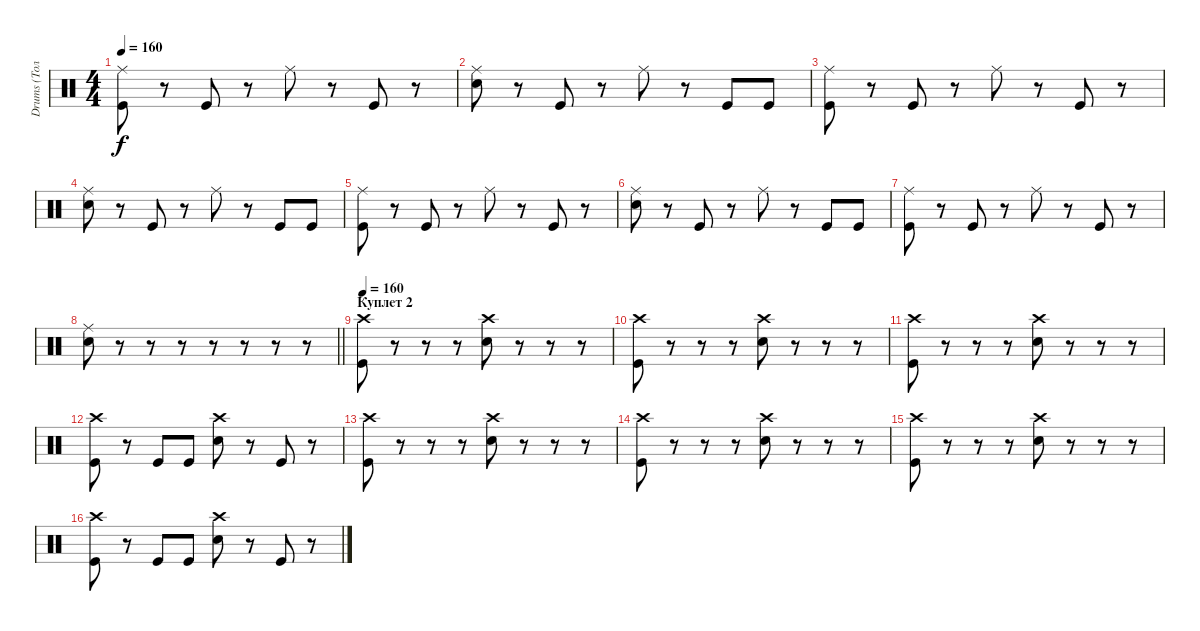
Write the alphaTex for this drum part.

\track ("Drums (Толян)" "Drums (Тол") {instrument percussion}
\staff {score}
\articulation defaults
\ts (4 4)
\tempo 160
\clef neutral
\ks c
("Ride (middle)" "Kick (hit)").8{dy f} r.8 "Kick (hit)".8 r.8 "Ride (middle)".8 r.8 "Kick (hit)".8 r.8 |
("Ride (middle)" "Electric Snare (hit)").8 r.8 "Kick (hit)".8 r.8 "Ride (middle)".8 r.8 "Kick (hit)".8 "Kick (hit)".8 |
("Ride (middle)" "Kick (hit)").8 r.8 "Kick (hit)".8 r.8 "Ride (middle)".8 r.8 "Kick (hit)".8 r.8 |
("Ride (middle)" "Electric Snare (hit)").8 r.8 "Kick (hit)".8 r.8 "Ride (middle)".8 r.8 "Kick (hit)".8 "Kick (hit)".8 |
("Ride (middle)" "Kick (hit)").8 r.8 "Kick (hit)".8 r.8 "Ride (middle)".8 r.8 "Kick (hit)".8 r.8 |
("Ride (middle)" "Electric Snare (hit)").8 r.8 "Kick (hit)".8 r.8 "Ride (middle)".8 r.8 "Kick (hit)".8 "Kick (hit)".8 |
("Ride (middle)" "Kick (hit)").8 r.8 "Kick (hit)".8 r.8 "Ride (middle)".8 r.8 "Kick (hit)".8 r.8 |
\barLineRight lightlight
("Ride (middle)" "Electric Snare (hit)").8 r.8 r.8 r.8 r.8 r.8 r.8 r.8 |
\section ("" "Куплет 2")
\tempo 160
("Crash high (hit)" "Kick (hit)").8 r.8 r.8 r.8 ("Crash high (hit)" "Electric Snare (hit)").8 r.8 r.8 r.8 |
("Crash high (hit)" "Kick (hit)").8 r.8 r.8 r.8 ("Crash high (hit)" "Electric Snare (hit)").8 r.8 r.8 r.8 |
("Crash high (hit)" "Kick (hit)").8 r.8 r.8 r.8 ("Crash high (hit)" "Electric Snare (hit)").8 r.8 r.8 r.8 |
("Crash high (hit)" "Kick (hit)").8 r.8 "Kick (hit)".8 "Kick (hit)".8 ("Crash high (hit)" "Electric Snare (hit)").8 r.8 "Kick (hit)".8 r.8 |
("Crash high (hit)" "Kick (hit)").8 r.8 r.8 r.8 ("Crash high (hit)" "Electric Snare (hit)").8 r.8 r.8 r.8 |
("Crash high (hit)" "Kick (hit)").8 r.8 r.8 r.8 ("Crash high (hit)" "Electric Snare (hit)").8 r.8 r.8 r.8 |
("Crash high (hit)" "Kick (hit)").8 r.8 r.8 r.8 ("Crash high (hit)" "Electric Snare (hit)").8 r.8 r.8 r.8 |
("Crash high (hit)" "Kick (hit)").8 r.8 "Kick (hit)".8 "Kick (hit)".8 ("Crash high (hit)" "Electric Snare (hit)").8 r.8 "Kick (hit)".8 r.8
